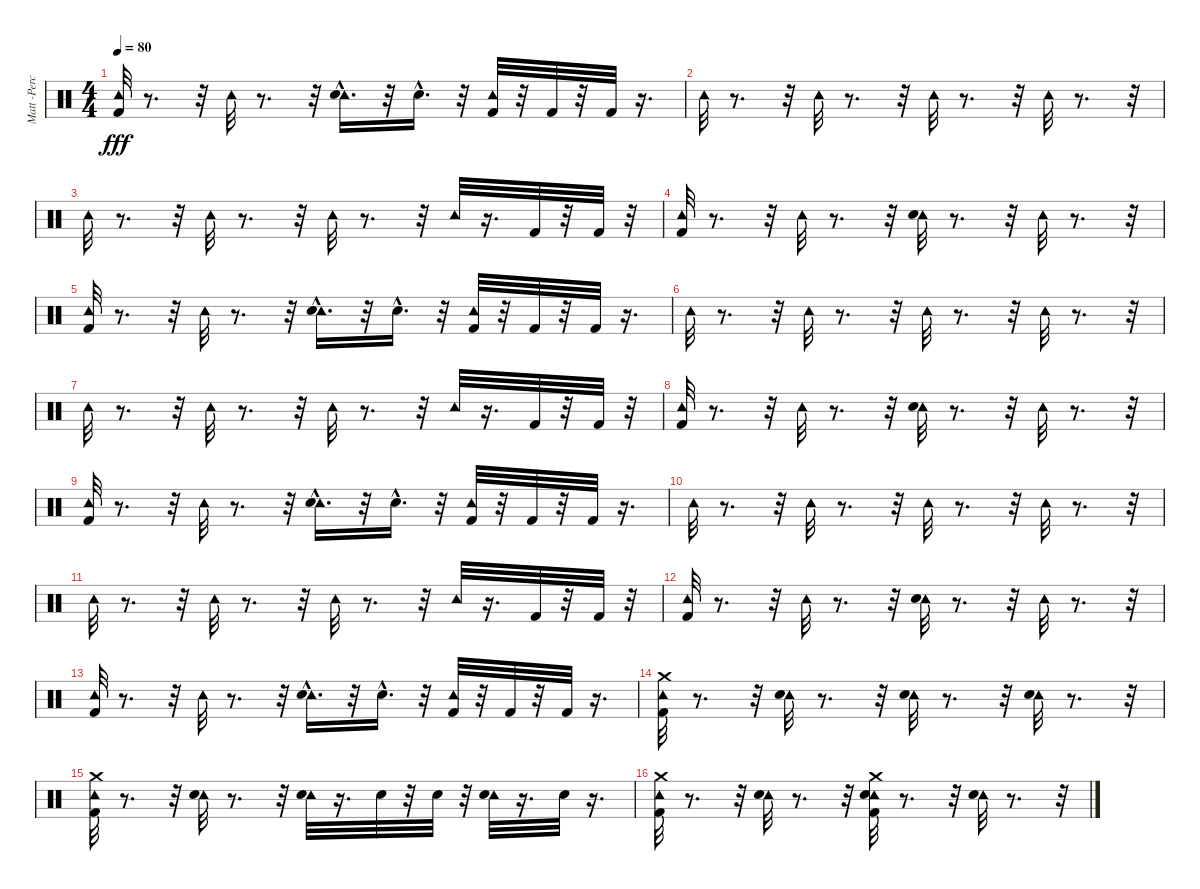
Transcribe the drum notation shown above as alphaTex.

\track ("Matt -Percussion-" "Matt -Perc") {instrument percussion}
\staff {score}
\articulation defaults
\ts (4 4)
\tempo 80
\clef neutral
\ks c
("Tambourine (hit)" "Kick (hit) 2").32{dy fff} r.8{d} r.32 "Tambourine (hit)".32 r.8{d} r.32 ("Tambourine (hit)" "Snare (hit) 2"{hac}).16{d} r.32 "Snare (hit) 2"{hac}.16{d} r.32 ("Tambourine (hit)" "Kick (hit) 2").32 r.32 "Kick (hit) 2".32 r.32 "Kick (hit) 2".32 r.16{d} |
"Tambourine (hit)".32 r.8{d} r.32 "Tambourine (hit)".32 r.8{d} r.32 "Tambourine (hit)".32 r.8{d} r.32 "Tambourine (hit)".32 r.8{d} r.32 |
"Tambourine (hit)".32 r.8{d} r.32 "Tambourine (hit)".32 r.8{d} r.32 "Tambourine (hit)".32 r.8{d} r.32 "Tambourine (hit)".32 r.16{d} "Kick (hit) 2".32 r.32 "Kick (hit) 2".32 r.32 |
("Tambourine (hit)" "Kick (hit) 2").32 r.8{d} r.32 "Tambourine (hit)".32 r.8{d} r.32 ("Tambourine (hit)" "Snare (hit) 2").32 r.8{d} r.32 "Tambourine (hit)".32 r.8{d} r.32 |
("Tambourine (hit)" "Kick (hit) 2").32 r.8{d} r.32 "Tambourine (hit)".32 r.8{d} r.32 ("Tambourine (hit)" "Snare (hit) 2"{hac}).16{d} r.32 "Snare (hit) 2"{hac}.16{d} r.32 ("Tambourine (hit)" "Kick (hit) 2").32 r.32 "Kick (hit) 2".32 r.32 "Kick (hit) 2".32 r.16{d} |
"Tambourine (hit)".32 r.8{d} r.32 "Tambourine (hit)".32 r.8{d} r.32 "Tambourine (hit)".32 r.8{d} r.32 "Tambourine (hit)".32 r.8{d} r.32 |
"Tambourine (hit)".32 r.8{d} r.32 "Tambourine (hit)".32 r.8{d} r.32 "Tambourine (hit)".32 r.8{d} r.32 "Tambourine (hit)".32 r.16{d} "Kick (hit) 2".32 r.32 "Kick (hit) 2".32 r.32 |
("Tambourine (hit)" "Kick (hit) 2").32 r.8{d} r.32 "Tambourine (hit)".32 r.8{d} r.32 ("Tambourine (hit)" "Snare (hit) 2").32 r.8{d} r.32 "Tambourine (hit)".32 r.8{d} r.32 |
("Tambourine (hit)" "Kick (hit) 2").32 r.8{d} r.32 "Tambourine (hit)".32 r.8{d} r.32 ("Tambourine (hit)" "Snare (hit) 2"{hac}).16{d} r.32 "Snare (hit) 2"{hac}.16{d} r.32 ("Tambourine (hit)" "Kick (hit) 2").32 r.32 "Kick (hit) 2".32 r.32 "Kick (hit) 2".32 r.16{d} |
"Tambourine (hit)".32 r.8{d} r.32 "Tambourine (hit)".32 r.8{d} r.32 "Tambourine (hit)".32 r.8{d} r.32 "Tambourine (hit)".32 r.8{d} r.32 |
"Tambourine (hit)".32 r.8{d} r.32 "Tambourine (hit)".32 r.8{d} r.32 "Tambourine (hit)".32 r.8{d} r.32 "Tambourine (hit)".32 r.16{d} "Kick (hit) 2".32 r.32 "Kick (hit) 2".32 r.32 |
("Tambourine (hit)" "Kick (hit) 2").32 r.8{d} r.32 "Tambourine (hit)".32 r.8{d} r.32 ("Tambourine (hit)" "Snare (hit) 2").32 r.8{d} r.32 "Tambourine (hit)".32 r.8{d} r.32 |
("Tambourine (hit)" "Kick (hit) 2").32 r.8{d} r.32 "Tambourine (hit)".32 r.8{d} r.32 ("Tambourine (hit)" "Snare (hit) 2"{hac}).16{d} r.32 "Snare (hit) 2"{hac}.16{d} r.32 ("Tambourine (hit)" "Kick (hit) 2").32 r.32 "Kick (hit) 2".32 r.32 "Kick (hit) 2".32 r.16{d} |
("Crash medium (hit)" "Tambourine (hit)" "Kick (hit) 2").32 r.8{d} r.32 ("Tambourine (hit)" "Snare (hit) 2").32 r.8{d} r.32 ("Tambourine (hit)" "Snare (hit) 2").32 r.8{d} r.32 ("Tambourine (hit)" "Snare (hit) 2").32 r.8{d} r.32 |
("Crash medium (hit)" "Tambourine (hit)" "Kick (hit) 2").32 r.8{d} r.32 ("Tambourine (hit)" "Snare (hit) 2").32 r.8{d} r.32 ("Tambourine (hit)" "Snare (hit) 2").32 r.16{d} "Snare (hit) 2".32 r.32 "Snare (hit) 2".32 r.32 ("Tambourine (hit)" "Snare (hit) 2").32 r.16{d} "Snare (hit) 2".32 r.16{d} |
("Crash medium (hit)" "Tambourine (hit)" "Kick (hit) 2").32 r.8{d} r.32 ("Tambourine (hit)" "Snare (hit) 2").32 r.8{d} r.32 ("Tambourine (hit)" "Snare (hit) 2" "Crash medium (hit)" "Kick (hit) 2").32 r.8{d} r.32 ("Tambourine (hit)" "Snare (hit) 2").32 r.8{d} r.32
